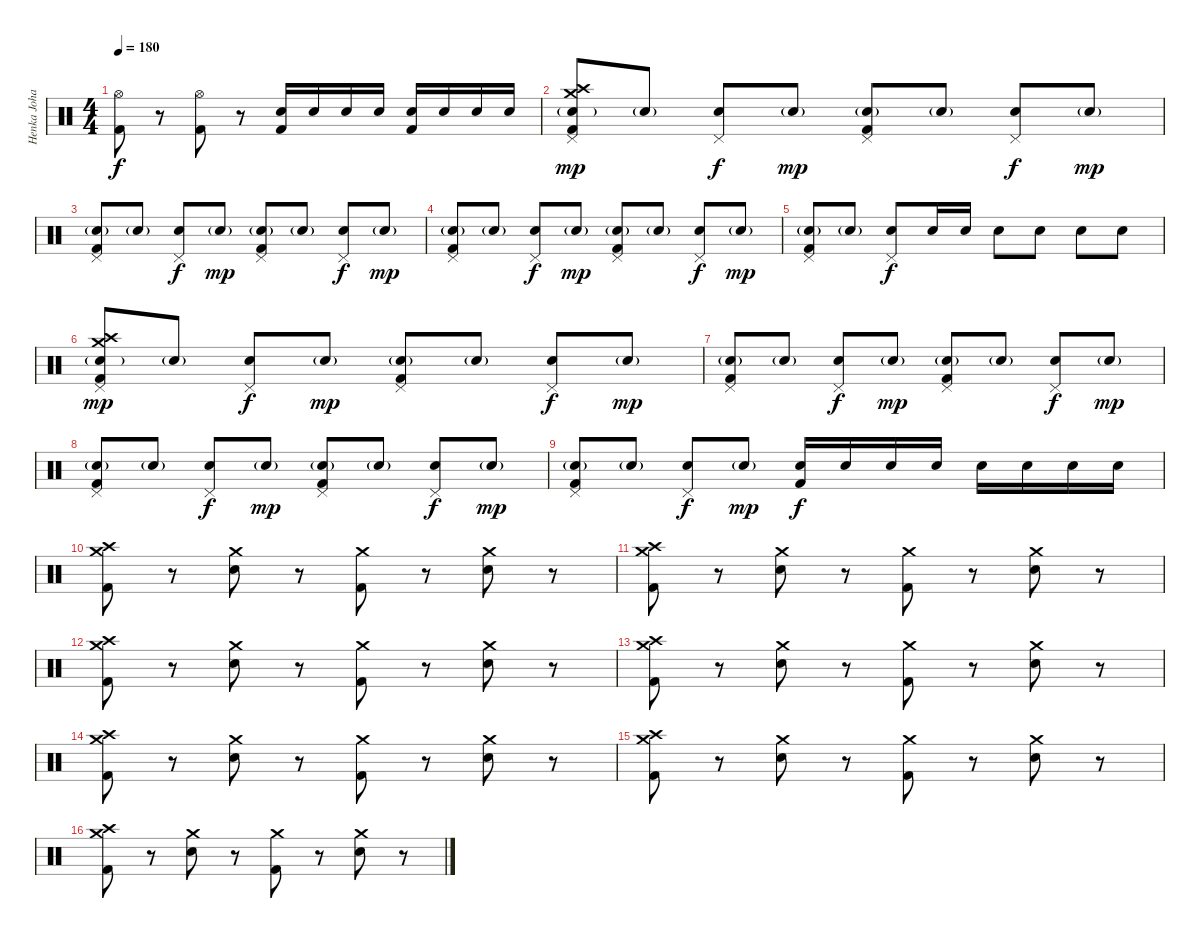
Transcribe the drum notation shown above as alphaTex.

\track ("Henka Johansson" "Henka Joha") {instrument percussion}
\staff {score}
\articulation defaults
\ts (4 4)
\tempo 180
\clef neutral
\ks c
("Hi-Hat (open)" "Kick (hit) 2").8{dy f} r.8 ("Hi-Hat (open)" "Kick (hit) 2").8 r.8 ("Snare (hit) 2" "Kick (hit) 2").16 "Snare (hit) 2".16 "Snare (hit) 2".16 "Snare (hit) 2".16 ("Snare (hit) 2" "Kick (hit) 2").16 "Snare (hit) 2".16 "Snare (hit) 2".16 "Snare (hit) 2".16 |
("Crash medium (hit)" "Crash high (hit)" "Pedal Hi-Hat (hit)" "Snare (hit)"{g} "Kick (hit) 2").8{dy mp} "Snare (hit) 2"{g}.8 ("Pedal Hi-Hat (hit)" "Snare (hit) 2").8{dy f} "Snare (hit) 2"{g}.8{dy mp} ("Pedal Hi-Hat (hit)" "Snare (hit) 2"{g} "Kick (hit) 2").8 "Snare (hit) 2"{g}.8 ("Pedal Hi-Hat (hit)" "Snare (hit) 2").8{dy f} "Snare (hit) 2"{g}.8{dy mp} |
("Pedal Hi-Hat (hit)" "Snare (hit) 2"{g} "Kick (hit) 2").8 "Snare (hit) 2"{g}.8 ("Pedal Hi-Hat (hit)" "Snare (hit) 2").8{dy f} "Snare (hit) 2"{g}.8{dy mp} ("Pedal Hi-Hat (hit)" "Snare (hit) 2"{g} "Kick (hit) 2").8 "Snare (hit) 2"{g}.8 ("Pedal Hi-Hat (hit)" "Snare (hit) 2").8{dy f} "Snare (hit) 2"{g}.8{dy mp} |
("Pedal Hi-Hat (hit)" "Snare (hit) 2"{g} "Kick (hit) 2").8 "Snare (hit) 2"{g}.8 ("Pedal Hi-Hat (hit)" "Snare (hit) 2").8{dy f} "Snare (hit) 2"{g}.8{dy mp} ("Pedal Hi-Hat (hit)" "Snare (hit) 2"{g} "Kick (hit) 2").8 "Snare (hit) 2"{g}.8 ("Pedal Hi-Hat (hit)" "Snare (hit) 2").8{dy f} "Snare (hit) 2"{g}.8{dy mp} |
("Pedal Hi-Hat (hit)" "Snare (hit) 2"{g} "Kick (hit) 2").8 "Snare (hit) 2"{g}.8 ("Pedal Hi-Hat (hit)" "Snare (hit) 2").8{dy f} "Snare (hit) 2".16 "Snare (hit) 2".16 "Snare (hit) 2".8 "Snare (hit) 2".8 "Snare (hit) 2".8 "Snare (hit) 2".8 |
("Crash medium (hit)" "Crash high (hit)" "Pedal Hi-Hat (hit)" "Snare (hit)"{g} "Kick (hit) 2").8{dy mp} "Snare (hit) 2"{g}.8 ("Pedal Hi-Hat (hit)" "Snare (hit) 2").8{dy f} "Snare (hit) 2"{g}.8{dy mp} ("Pedal Hi-Hat (hit)" "Snare (hit) 2"{g} "Kick (hit) 2").8 "Snare (hit) 2"{g}.8 ("Pedal Hi-Hat (hit)" "Snare (hit) 2").8{dy f} "Snare (hit) 2"{g}.8{dy mp} |
("Pedal Hi-Hat (hit)" "Snare (hit) 2"{g} "Kick (hit) 2").8 "Snare (hit) 2"{g}.8 ("Pedal Hi-Hat (hit)" "Snare (hit) 2").8{dy f} "Snare (hit) 2"{g}.8{dy mp} ("Pedal Hi-Hat (hit)" "Snare (hit) 2"{g} "Kick (hit) 2").8 "Snare (hit) 2"{g}.8 ("Pedal Hi-Hat (hit)" "Snare (hit) 2").8{dy f} "Snare (hit) 2"{g}.8{dy mp} |
("Pedal Hi-Hat (hit)" "Snare (hit) 2"{g} "Kick (hit) 2").8 "Snare (hit) 2"{g}.8 ("Pedal Hi-Hat (hit)" "Snare (hit) 2").8{dy f} "Snare (hit) 2"{g}.8{dy mp} ("Pedal Hi-Hat (hit)" "Snare (hit) 2"{g} "Kick (hit) 2").8 "Snare (hit) 2"{g}.8 ("Pedal Hi-Hat (hit)" "Snare (hit) 2").8{dy f} "Snare (hit) 2"{g}.8{dy mp} |
("Pedal Hi-Hat (hit)" "Snare (hit) 2"{g} "Kick (hit) 2").8 "Snare (hit) 2"{g}.8 ("Pedal Hi-Hat (hit)" "Snare (hit) 2").8{dy f} "Snare (hit) 2"{g}.8{dy mp} ("Snare (hit) 2" "Kick (hit) 2").16{dy f} "Snare (hit) 2".16 "Snare (hit) 2".16 "Snare (hit) 2".16 "Snare (hit) 2".16 "Snare (hit) 2".16 "Snare (hit) 2".16 "Snare (hit) 2".16 |
("Crash medium (hit)" "Crash high (hit)" "Kick (hit) 2").8 r.8 ("Crash medium (hit)" "Snare (hit) 2").8 r.8 ("Crash medium (hit)" "Kick (hit) 2").8 r.8 ("Crash medium (hit)" "Snare (hit) 2").8 r.8 |
("Crash medium (hit)" "Crash high (hit)" "Kick (hit) 2").8 r.8 ("Crash medium (hit)" "Snare (hit) 2").8 r.8 ("Crash medium (hit)" "Kick (hit) 2").8 r.8 ("Crash medium (hit)" "Snare (hit) 2").8 r.8 |
("Crash medium (hit)" "Crash high (hit)" "Kick (hit) 2").8 r.8 ("Crash medium (hit)" "Snare (hit) 2").8 r.8 ("Crash medium (hit)" "Kick (hit) 2").8 r.8 ("Crash medium (hit)" "Snare (hit) 2").8 r.8 |
("Crash medium (hit)" "Crash high (hit)" "Kick (hit) 2").8 r.8 ("Crash medium (hit)" "Snare (hit) 2").8 r.8 ("Crash medium (hit)" "Kick (hit) 2").8 r.8 ("Crash medium (hit)" "Snare (hit) 2").8 r.8 |
("Crash medium (hit)" "Crash high (hit)" "Kick (hit) 2").8 r.8 ("Crash medium (hit)" "Snare (hit) 2").8 r.8 ("Crash medium (hit)" "Kick (hit) 2").8 r.8 ("Crash medium (hit)" "Snare (hit) 2").8 r.8 |
("Crash medium (hit)" "Crash high (hit)" "Kick (hit) 2").8 r.8 ("Crash medium (hit)" "Snare (hit) 2").8 r.8 ("Crash medium (hit)" "Kick (hit) 2").8 r.8 ("Crash medium (hit)" "Snare (hit) 2").8 r.8 |
("Crash medium (hit)" "Crash high (hit)" "Kick (hit) 2").8 r.8 ("Crash medium (hit)" "Snare (hit) 2").8 r.8 ("Crash medium (hit)" "Kick (hit) 2").8 r.8 ("Crash medium (hit)" "Snare (hit) 2").8 r.8
